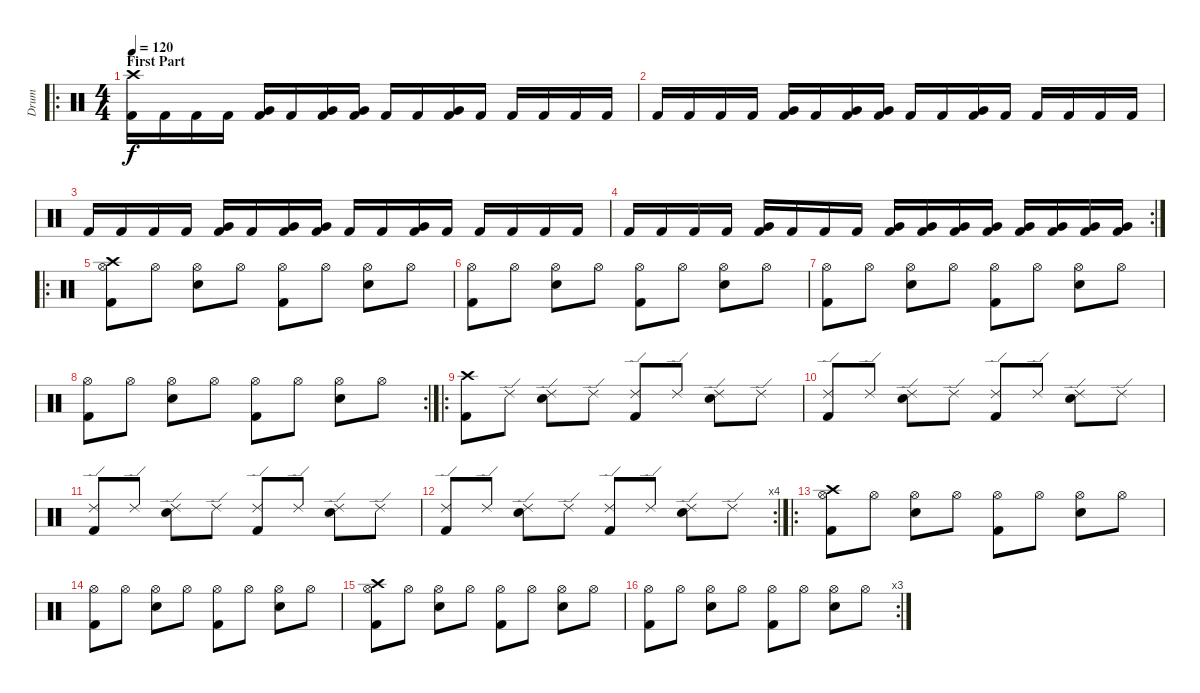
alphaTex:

\track ("Drum" "Drum") {instrument percussion}
\staff {score}
\articulation defaults
\ro
\ts (4 4)
\section ("" "First Part")
\tempo 120
\clef neutral
\ks c
("Crash high (hit)" "Kick (hit) 2").16{dy f} "Kick (hit) 2".16 "Kick (hit) 2".16 "Kick (hit) 2".16 ("Very Low Tom (hit)" "Kick (hit) 2").16 "Kick (hit) 2".16 ("Very Low Tom (hit)" "Kick (hit) 2").16 ("Very Low Tom (hit)" "Kick (hit) 2").16 "Kick (hit) 2".16 "Kick (hit) 2".16 ("Very Low Tom (hit)" "Kick (hit) 2").16 "Kick (hit) 2".16 "Kick (hit) 2".16 "Kick (hit) 2".16 "Kick (hit) 2".16 "Kick (hit) 2".16 |
"Kick (hit) 2".16 "Kick (hit) 2".16 "Kick (hit) 2".16 "Kick (hit) 2".16 ("Very Low Tom (hit)" "Kick (hit) 2").16 "Kick (hit) 2".16 ("Very Low Tom (hit)" "Kick (hit) 2").16 ("Very Low Tom (hit)" "Kick (hit) 2").16 "Kick (hit) 2".16 "Kick (hit) 2".16 ("Very Low Tom (hit)" "Kick (hit) 2").16 "Kick (hit) 2".16 "Kick (hit) 2".16 "Kick (hit) 2".16 "Kick (hit) 2".16 "Kick (hit) 2".16 |
"Kick (hit) 2".16 "Kick (hit) 2".16 "Kick (hit) 2".16 "Kick (hit) 2".16 ("Very Low Tom (hit)" "Kick (hit) 2").16 "Kick (hit) 2".16 ("Very Low Tom (hit)" "Kick (hit) 2").16 ("Very Low Tom (hit)" "Kick (hit) 2").16 "Kick (hit) 2".16 "Kick (hit) 2".16 ("Very Low Tom (hit)" "Kick (hit) 2").16 "Kick (hit) 2".16 "Kick (hit) 2".16 "Kick (hit) 2".16 "Kick (hit) 2".16 "Kick (hit) 2".16 |
\rc 2 "Kick (hit) 2".16 "Kick (hit) 2".16 "Kick (hit) 2".16 "Kick (hit) 2".16
("Very Low Tom (hit)" "Kick (hit) 2").16 "Kick (hit) 2".16 "Kick (hit) 2".16 "Kick (hit) 2".16 ("Very Low Tom (hit)" "Kick (hit) 2").16 ("Very Low Tom (hit)" "Kick (hit) 2").16 ("Very Low Tom (hit)" "Kick (hit) 2").16 ("Very Low Tom (hit)" "Kick (hit) 2").16 ("Very Low Tom (hit)" "Kick (hit) 2").16 ("Very Low Tom (hit)" "Kick (hit) 2").16 ("Very Low Tom (hit)" "Kick (hit) 2").16 ("Very Low Tom (hit)" "Kick (hit) 2").16 |
\ro
("Hi-Hat (open)" "Crash high (hit)" "Kick (hit) 2").8 "Hi-Hat (open)".8 ("Hi-Hat (open)" "Snare (hit) 2").8 "Hi-Hat (open)".8 ("Hi-Hat (open)" "Kick (hit) 2").8 "Hi-Hat (open)".8 ("Hi-Hat (open)" "Snare (hit) 2").8 "Hi-Hat (open)".8 |
("Hi-Hat (open)" "Kick (hit) 2").8 "Hi-Hat (open)".8 ("Hi-Hat (open)" "Snare (hit) 2").8 "Hi-Hat (open)".8 ("Hi-Hat (open)" "Kick (hit) 2").8 "Hi-Hat (open)".8 ("Hi-Hat (open)" "Snare (hit) 2").8 "Hi-Hat (open)".8 |
("Hi-Hat (open)" "Kick (hit) 2").8 "Hi-Hat (open)".8 ("Hi-Hat (open)" "Snare (hit) 2").8 "Hi-Hat (open)".8 ("Hi-Hat (open)" "Kick (hit) 2").8 "Hi-Hat (open)".8 ("Hi-Hat (open)" "Snare (hit) 2").8 "Hi-Hat (open)".8 |
\rc 2
("Hi-Hat (open)" "Kick (hit) 2").8 "Hi-Hat (open)".8 ("Hi-Hat (open)" "Snare (hit) 2").8 "Hi-Hat (open)".8 ("Hi-Hat (open)" "Kick (hit) 2").8 "Hi-Hat (open)".8 ("Hi-Hat (open)" "Snare (hit) 2").8 "Hi-Hat (open)".8 |
\ro
("Crash high (hit)" "Kick (hit) 2").8 "Ride (edge) 2".8 ("Ride (edge) 2" "Snare (hit) 2").8 "Ride (edge) 2".8 ("Ride (edge) 2" "Kick (hit) 2").8 "Ride (edge) 2".8 ("Ride (edge) 2" "Snare (hit) 2").8 "Ride (edge) 2".8 |
("Ride (edge) 2" "Kick (hit) 2").8 "Ride (edge) 2".8 ("Ride (edge) 2" "Snare (hit) 2").8 "Ride (edge) 2".8 ("Ride (edge) 2" "Kick (hit) 2").8 "Ride (edge) 2".8 ("Ride (edge) 2" "Snare (hit) 2").8 "Ride (edge) 2".8 |
("Ride (edge) 2" "Kick (hit) 2").8 "Ride (edge) 2".8 ("Ride (edge) 2" "Snare (hit) 2").8 "Ride (edge) 2".8 ("Ride (edge) 2" "Kick (hit) 2").8 "Ride (edge) 2".8 ("Ride (edge) 2" "Snare (hit) 2").8 "Ride (edge) 2".8 |
\rc 4
("Ride (edge) 2" "Kick (hit) 2").8 "Ride (edge) 2".8 ("Ride (edge) 2" "Snare (hit) 2").8 "Ride (edge) 2".8 ("Ride (edge) 2" "Kick (hit) 2").8 "Ride (edge) 2".8 ("Ride (edge) 2" "Snare (hit) 2").8 "Ride (edge) 2".8 |
\ro
("Hi-Hat (open)" "Crash high (hit)" "Kick (hit) 2").8 "Hi-Hat (open)".8 ("Hi-Hat (open)" "Snare (hit) 2").8 "Hi-Hat (open)".8 ("Hi-Hat (open)" "Kick (hit) 2").8 "Hi-Hat (open)".8 ("Hi-Hat (open)" "Snare (hit) 2").8 "Hi-Hat (open)".8 |
("Hi-Hat (open)" "Kick (hit) 2").8 "Hi-Hat (open)".8 ("Hi-Hat (open)" "Snare (hit) 2").8 "Hi-Hat (open)".8 ("Hi-Hat (open)" "Kick (hit) 2").8 "Hi-Hat (open)".8 ("Hi-Hat (open)" "Snare (hit) 2").8 "Hi-Hat (open)".8 |
("Hi-Hat (open)" "Crash high (hit)" "Kick (hit) 2").8 "Hi-Hat (open)".8 ("Hi-Hat (open)" "Snare (hit) 2").8 "Hi-Hat (open)".8 ("Hi-Hat (open)" "Kick (hit) 2").8 "Hi-Hat (open)".8 ("Hi-Hat (open)" "Snare (hit) 2").8 "Hi-Hat (open)".8 |
\rc 3
("Hi-Hat (open)" "Kick (hit) 2").8 "Hi-Hat (open)".8 ("Hi-Hat (open)" "Snare (hit) 2").8 "Hi-Hat (open)".8 ("Hi-Hat (open)" "Kick (hit) 2").8 "Hi-Hat (open)".8 ("Hi-Hat (open)" "Snare (hit) 2").8 "Hi-Hat (open)".8
